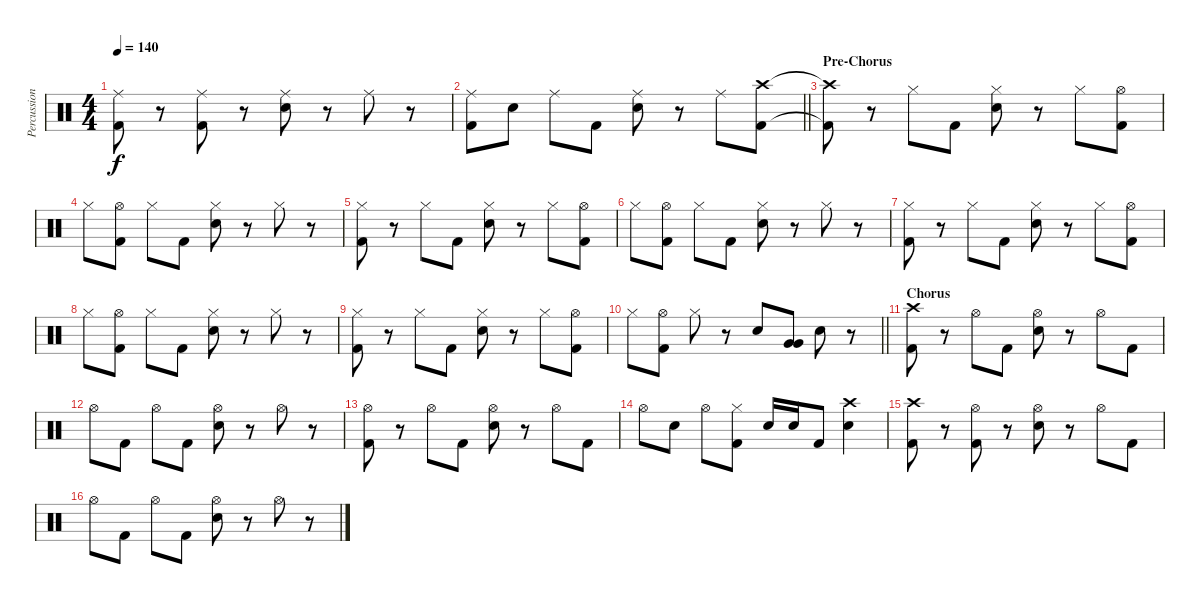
\track ("Percussion" "Percussion") {instrument percussion}
\staff {score}
\articulation defaults
\ts (4 4)
\tempo 140
\clef neutral
\ks c
("Ride (middle)" "Kick (hit) 2").8{dy f} r.8 ("Ride (middle)" "Kick (hit) 2").8 r.8 ("Ride (middle)" "Snare (hit) 2").8 r.8 "Ride (middle)".8 r.8 |
\barLineRight lightlight
("Ride (middle)" "Kick (hit) 2").8 "Snare (hit) 2".8 "Ride (middle)".8 "Kick (hit) 2".8 ("Ride (middle)" "Snare (hit) 2").8 r.8 "Ride (middle)".8 ("Crash high (hit)" "Kick (hit) 2").8 |
\section ("" "Pre-Chorus")
("Crash high (hit)"{t} "Kick (hit) 2"{t}).8 r.8 "Hi-Hat (closed)".8 "Kick (hit) 2".8 ("Hi-Hat (closed)" "Snare (hit) 2").8 r.8 "Hi-Hat (closed)".8 ("Hi-Hat (open)" "Kick (hit) 2").8 |
"Hi-Hat (closed)".8 ("Hi-Hat (open)" "Kick (hit) 2").8 "Hi-Hat (closed)".8 "Kick (hit) 2".8 ("Hi-Hat (closed)" "Snare (hit) 2").8 r.8 "Hi-Hat (closed)".8 r.8 |
("Hi-Hat (closed)" "Kick (hit) 2").8 r.8 "Hi-Hat (closed)".8 "Kick (hit) 2".8 ("Hi-Hat (closed)" "Snare (hit) 2").8 r.8 "Hi-Hat (closed)".8 ("Hi-Hat (open)" "Kick (hit) 2").8 |
"Hi-Hat (closed)".8 ("Hi-Hat (open)" "Kick (hit) 2").8 "Hi-Hat (closed)".8 "Kick (hit) 2".8 ("Hi-Hat (closed)" "Snare (hit) 2").8 r.8 "Hi-Hat (closed)".8 r.8 |
("Hi-Hat (closed)" "Kick (hit) 2").8 r.8 "Hi-Hat (closed)".8 "Kick (hit) 2".8 ("Hi-Hat (closed)" "Snare (hit) 2").8 r.8 "Hi-Hat (closed)".8 ("Hi-Hat (open)" "Kick (hit) 2").8 |
"Hi-Hat (closed)".8 ("Hi-Hat (open)" "Kick (hit) 2").8 "Hi-Hat (closed)".8 "Kick (hit) 2".8 ("Hi-Hat (closed)" "Snare (hit) 2").8 r.8 "Hi-Hat (closed)".8 r.8 |
("Hi-Hat (closed)" "Kick (hit) 2").8 r.8 "Hi-Hat (closed)".8 "Kick (hit) 2".8 ("Hi-Hat (closed)" "Snare (hit) 2").8 r.8 "Hi-Hat (closed)".8 ("Hi-Hat (open)" "Kick (hit) 2").8 |
\barLineRight lightlight "Hi-Hat (closed)".8
("Hi-Hat (open)" "Kick (hit) 2").8 "Hi-Hat (closed)".8 r.8 "Snare (hit) 2".8 ("Very Low Tom (hit)" "Very Low Tom (hit)").8 "Snare (hit) 2".8 r.8 |
\section ("" "Chorus")
("Crash high (hit)" "Kick (hit) 2").8 r.8 "Hi-Hat (open)".8 "Kick (hit) 2".8 ("Hi-Hat (open)" "Snare (hit) 2").8 r.8 "Hi-Hat (open)".8 "Kick (hit) 2".8 |
"Hi-Hat (open)".8 "Kick (hit) 2".8 "Hi-Hat (open)".8 "Kick (hit) 2".8 ("Hi-Hat (open)" "Snare (hit) 2").8 r.8 "Hi-Hat (open)".8 r.8 |
("Hi-Hat (open)" "Kick (hit) 2").8 r.8 "Hi-Hat (open)".8 "Kick (hit) 2".8 ("Hi-Hat (open)" "Snare (hit) 2").8 r.8 "Hi-Hat (open)".8 "Kick (hit) 2".8 |
"Hi-Hat (open)".8 "Snare (hit) 2".8 "Hi-Hat (open)".8 ("Hi-Hat (closed)" "Kick (hit) 2").8 "Snare (hit) 2".16 "Snare (hit) 2".16 "Kick (hit) 2".8 ("Crash high (hit)" "Snare (hit) 2").4 |
("Crash high (hit)" "Kick (hit) 2").8 r.8 ("Hi-Hat (open)" "Kick (hit) 2").8 r.8 ("Hi-Hat (open)" "Snare (hit) 2").8 r.8 "Hi-Hat (open)".8 "Kick (hit) 2".8 |
"Hi-Hat (open)".8 "Kick (hit) 2".8 "Hi-Hat (open)".8 "Kick (hit) 2".8 ("Hi-Hat (open)" "Snare (hit) 2").8 r.8 "Hi-Hat (open)".8 r.8
